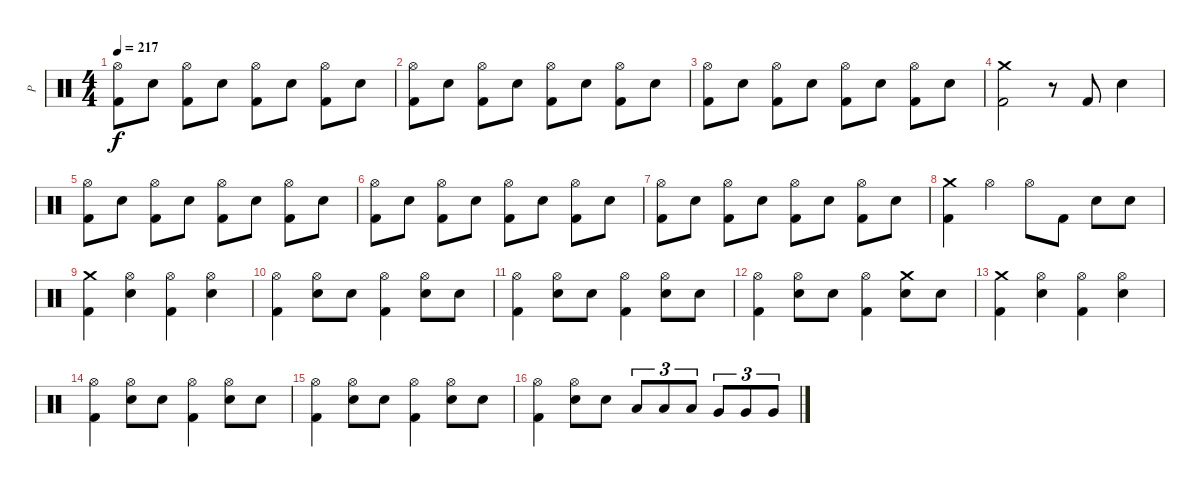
\track ("P" "P") {instrument percussion}
\staff {score}
\articulation defaults
\ts (4 4)
\tempo 217
\clef neutral
\ks c
("Hi-Hat (open)" "Kick (hit) 2").8{dy f} "Electric Snare (hit)".8 ("Hi-Hat (open)" "Kick (hit) 2").8 "Electric Snare (hit)".8 ("Hi-Hat (open)" "Kick (hit) 2").8 "Electric Snare (hit)".8 ("Hi-Hat (open)" "Kick (hit) 2").8 "Electric Snare (hit)".8 |
("Hi-Hat (open)" "Kick (hit) 2").8 "Electric Snare (hit)".8 ("Hi-Hat (open)" "Kick (hit) 2").8 "Electric Snare (hit)".8 ("Hi-Hat (open)" "Kick (hit) 2").8 "Electric Snare (hit)".8 ("Hi-Hat (open)" "Kick (hit) 2").8 "Electric Snare (hit)".8 |
("Hi-Hat (open)" "Kick (hit) 2").8 "Electric Snare (hit)".8 ("Hi-Hat (open)" "Kick (hit) 2").8 "Electric Snare (hit)".8 ("Hi-Hat (open)" "Kick (hit) 2").8 "Electric Snare (hit)".8 ("Hi-Hat (open)" "Kick (hit) 2").8 "Electric Snare (hit)".8 |
("Crash medium (hit)" "Kick (hit) 2").2 r.8 "Kick (hit) 2".8 "Electric Snare (hit)".4 |
("Hi-Hat (open)" "Kick (hit) 2").8 "Electric Snare (hit)".8 ("Hi-Hat (open)" "Kick (hit) 2").8 "Electric Snare (hit)".8 ("Hi-Hat (open)" "Kick (hit) 2").8 "Electric Snare (hit)".8 ("Hi-Hat (open)" "Kick (hit) 2").8 "Electric Snare (hit)".8 |
("Hi-Hat (open)" "Kick (hit) 2").8 "Electric Snare (hit)".8 ("Hi-Hat (open)" "Kick (hit) 2").8 "Electric Snare (hit)".8 ("Hi-Hat (open)" "Kick (hit) 2").8 "Electric Snare (hit)".8 ("Hi-Hat (open)" "Kick (hit) 2").8 "Electric Snare (hit)".8 |
("Hi-Hat (open)" "Kick (hit) 2").8 "Electric Snare (hit)".8 ("Hi-Hat (open)" "Kick (hit) 2").8 "Electric Snare (hit)".8 ("Hi-Hat (open)" "Kick (hit) 2").8 "Electric Snare (hit)".8 ("Hi-Hat (open)" "Kick (hit) 2").8 "Electric Snare (hit)".8 |
("Crash medium (hit)" "Kick (hit) 2").4 "Hi-Hat (open)".4 "Hi-Hat (open)".8 "Kick (hit) 2".8 "Electric Snare (hit)".8 "Electric Snare (hit)".8 |
("Crash medium (hit)" "Kick (hit) 2").4 ("Hi-Hat (open)" "Electric Snare (hit)").4 ("Hi-Hat (open)" "Kick (hit) 2").4 ("Hi-Hat (open)" "Electric Snare (hit)").4 |
("Hi-Hat (open)" "Kick (hit) 2").4 ("Hi-Hat (open)" "Electric Snare (hit)").8 "Electric Snare (hit)".8 ("Hi-Hat (open)" "Kick (hit) 2").4 ("Hi-Hat (open)" "Electric Snare (hit)").8 "Electric Snare (hit)".8 |
("Hi-Hat (open)" "Kick (hit) 2").4 ("Hi-Hat (open)" "Electric Snare (hit)").8 "Electric Snare (hit)".8 ("Hi-Hat (open)" "Kick (hit) 2").4 ("Hi-Hat (open)" "Electric Snare (hit)").8 "Electric Snare (hit)".8 |
("Hi-Hat (open)" "Kick (hit) 2").4 ("Hi-Hat (open)" "Electric Snare (hit)").8 "Electric Snare (hit)".8 ("Hi-Hat (open)" "Kick (hit) 2").4 ("Crash medium (hit)" "Electric Snare (hit)").8 "Electric Snare (hit)".8 |
("Crash medium (hit)" "Kick (hit) 2").4 ("Hi-Hat (open)" "Electric Snare (hit)").4 ("Hi-Hat (open)" "Kick (hit) 2").4 ("Hi-Hat (open)" "Electric Snare (hit)").4 |
("Hi-Hat (open)" "Kick (hit) 2").4 ("Hi-Hat (open)" "Electric Snare (hit)").8 "Electric Snare (hit)".8 ("Hi-Hat (open)" "Kick (hit) 2").4 ("Hi-Hat (open)" "Electric Snare (hit)").8 "Electric Snare (hit)".8 |
("Hi-Hat (open)" "Kick (hit) 2").4 ("Hi-Hat (open)" "Electric Snare (hit)").8 "Electric Snare (hit)".8 ("Hi-Hat (open)" "Kick (hit) 2").4 ("Hi-Hat (open)" "Electric Snare (hit)").8 "Electric Snare (hit)".8 |
("Hi-Hat (open)" "Kick (hit) 2").4 ("Hi-Hat (open)" "Electric Snare (hit)").8 "Electric Snare (hit)".8 "Low Tom (hit)".8{tu (3 2)} "Low Tom (hit)".8{tu (3 2)} "Low Tom (hit)".8{tu (3 2)} "Very Low Tom (hit)".8{tu (3 2)} "Very Low Tom (hit)".8{tu (3 2)} "Very Low Tom (hit)".8{tu (3 2)}
